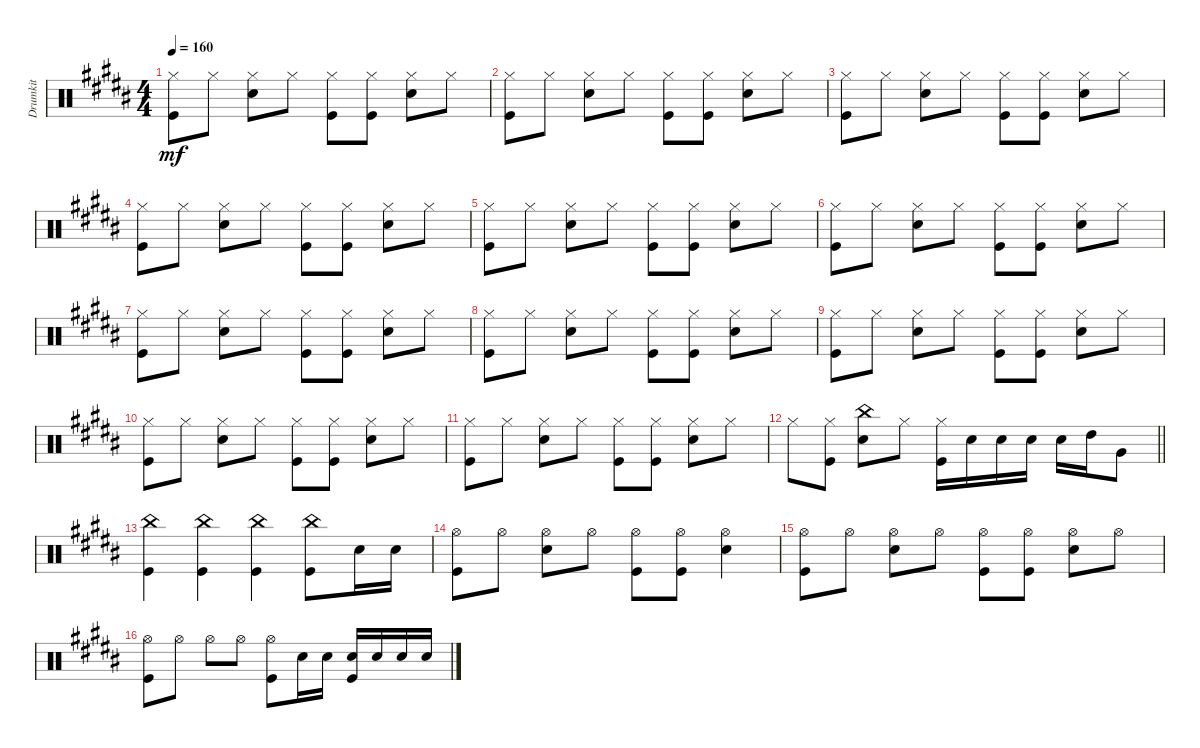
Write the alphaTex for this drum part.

\track ("Drumkit" "Drumkit") {instrument percussion}
\staff {score}
\articulation defaults
\ts (4 4)
\tempo 160
\clef neutral
\ks b
("Hi-Hat (closed)" "Kick (hit)").8{dy mf} "Hi-Hat (closed)".8 ("Hi-Hat (closed)" "Snare (hit) 2").8 "Hi-Hat (closed)".8 ("Hi-Hat (closed)" "Kick (hit)").8 ("Kick (hit)" "Hi-Hat (closed)").8 ("Hi-Hat (closed)" "Snare (hit) 2").8 "Hi-Hat (closed)".8 |
("Hi-Hat (closed)" "Kick (hit)").8 "Hi-Hat (closed)".8 ("Hi-Hat (closed)" "Snare (hit) 2").8 "Hi-Hat (closed)".8 ("Hi-Hat (closed)" "Kick (hit)").8 ("Kick (hit)" "Hi-Hat (closed)").8 ("Hi-Hat (closed)" "Snare (hit) 2").8 "Hi-Hat (closed)".8 |
("Hi-Hat (closed)" "Kick (hit)").8 "Hi-Hat (closed)".8 ("Hi-Hat (closed)" "Snare (hit) 2").8 "Hi-Hat (closed)".8 ("Hi-Hat (closed)" "Kick (hit)").8 ("Kick (hit)" "Hi-Hat (closed)").8 ("Hi-Hat (closed)" "Snare (hit) 2").8 "Hi-Hat (closed)".8 |
("Hi-Hat (closed)" "Kick (hit)").8 "Hi-Hat (closed)".8 ("Hi-Hat (closed)" "Snare (hit) 2").8 "Hi-Hat (closed)".8 ("Hi-Hat (closed)" "Kick (hit)").8 ("Kick (hit)" "Hi-Hat (closed)").8 ("Hi-Hat (closed)" "Snare (hit) 2").8 "Hi-Hat (closed)".8 |
("Hi-Hat (closed)" "Kick (hit)").8 "Hi-Hat (closed)".8 ("Hi-Hat (closed)" "Snare (hit) 2").8 "Hi-Hat (closed)".8 ("Hi-Hat (closed)" "Kick (hit)").8 ("Kick (hit)" "Hi-Hat (closed)").8 ("Hi-Hat (closed)" "Snare (hit) 2").8 "Hi-Hat (closed)".8 |
("Hi-Hat (closed)" "Kick (hit)").8 "Hi-Hat (closed)".8 ("Hi-Hat (closed)" "Snare (hit) 2").8 "Hi-Hat (closed)".8 ("Hi-Hat (closed)" "Kick (hit)").8 ("Kick (hit)" "Hi-Hat (closed)").8 ("Hi-Hat (closed)" "Snare (hit) 2").8 "Hi-Hat (closed)".8 |
("Hi-Hat (closed)" "Kick (hit)").8 "Hi-Hat (closed)".8 ("Hi-Hat (closed)" "Snare (hit) 2").8 "Hi-Hat (closed)".8 ("Hi-Hat (closed)" "Kick (hit)").8 ("Kick (hit)" "Hi-Hat (closed)").8 ("Hi-Hat (closed)" "Snare (hit) 2").8 "Hi-Hat (closed)".8 |
("Hi-Hat (closed)" "Kick (hit)").8 "Hi-Hat (closed)".8 ("Hi-Hat (closed)" "Snare (hit) 2").8 "Hi-Hat (closed)".8 ("Hi-Hat (closed)" "Kick (hit)").8 ("Kick (hit)" "Hi-Hat (closed)").8 ("Hi-Hat (closed)" "Snare (hit) 2").8 "Hi-Hat (closed)".8 |
("Hi-Hat (closed)" "Kick (hit)").8 "Hi-Hat (closed)".8 ("Hi-Hat (closed)" "Snare (hit) 2").8 "Hi-Hat (closed)".8 ("Hi-Hat (closed)" "Kick (hit)").8 ("Kick (hit)" "Hi-Hat (closed)").8 ("Hi-Hat (closed)" "Snare (hit) 2").8 "Hi-Hat (closed)".8 |
("Hi-Hat (closed)" "Kick (hit)").8 "Hi-Hat (closed)".8 ("Hi-Hat (closed)" "Snare (hit) 2").8 "Hi-Hat (closed)".8 ("Hi-Hat (closed)" "Kick (hit)").8 ("Kick (hit)" "Hi-Hat (closed)").8 ("Hi-Hat (closed)" "Snare (hit) 2").8 "Hi-Hat (closed)".8 |
("Hi-Hat (closed)" "Kick (hit)").8 "Hi-Hat (closed)".8 ("Hi-Hat (closed)" "Snare (hit) 2").8 "Hi-Hat (closed)".8 ("Hi-Hat (closed)" "Kick (hit)").8 ("Kick (hit)" "Hi-Hat (closed)").8 ("Hi-Hat (closed)" "Snare (hit) 2").8 "Hi-Hat (closed)".8 |
\barLineRight lightlight "Hi-Hat (closed)".8
("Hi-Hat (closed)" "Kick (hit)").8 ("Snare (hit) 2" "China (hit)").8 "Hi-Hat (closed)".8 ("Hi-Hat (closed)" "Kick (hit)").16 "Snare (hit) 2".16 "Snare (hit) 2".16 "Snare (hit) 2".16 "Snare (hit) 2".16 "High Tom (hit)".16 "Very Low Tom (hit)".8 |
\section ("" "")
("Kick (hit)" "China (hit)").4 ("China (hit)" "Kick (hit)").4 ("China (hit)" "Kick (hit)").4 ("Kick (hit)" "China (hit)").8 "Snare (hit) 2".16 "Snare (hit) 2".16 |
("Hi-Hat (open)" "Kick (hit)").8 "Hi-Hat (open)".8 ("Hi-Hat (open)" "Snare (hit) 2").8 "Hi-Hat (open)".8 ("Hi-Hat (open)" "Kick (hit)").8 ("Hi-Hat (open)" "Kick (hit)").8 ("Hi-Hat (open)" "Snare (hit) 2").4 |
("Kick (hit)" "Hi-Hat (open)").8 "Hi-Hat (open)".8 ("Hi-Hat (open)" "Snare (hit) 2").8 "Hi-Hat (open)".8 ("Hi-Hat (open)" "Kick (hit)").8 ("Kick (hit)" "Hi-Hat (open)").8 ("Hi-Hat (open)" "Snare (hit) 2").8 "Hi-Hat (open)".8 |
("Hi-Hat (open)" "Kick (hit)").8 "Hi-Hat (open)".8 "Hi-Hat (open)".8 "Hi-Hat (open)".8 ("Hi-Hat (open)" "Kick (hit)").8 "Snare (hit) 2".16 "Snare (hit) 2".16 ("Snare (hit) 2" "Kick (hit)").16 "Snare (hit) 2".16 "Snare (hit) 2".16 "Snare (hit) 2".16
